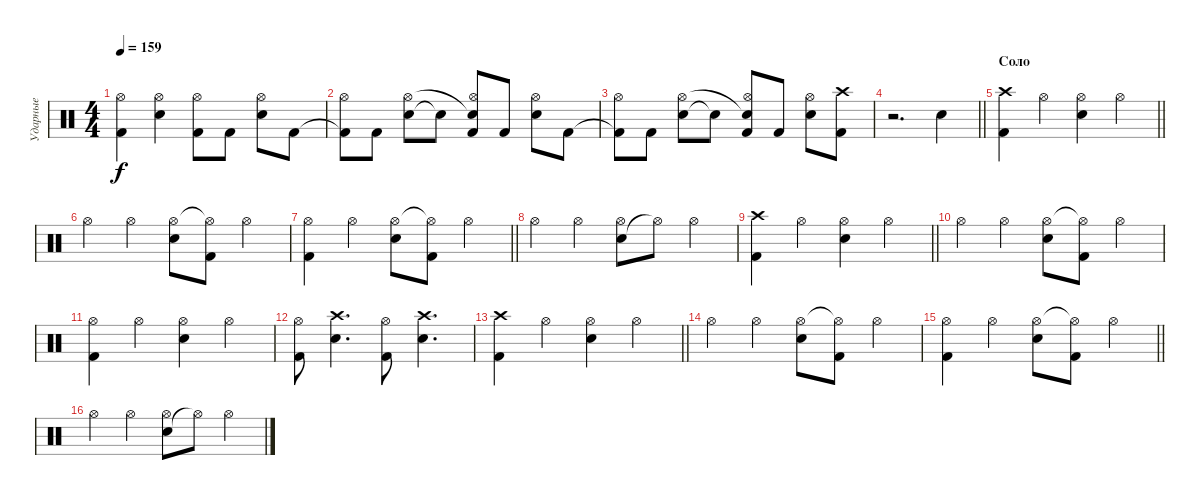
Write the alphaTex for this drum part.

\track ("Ударные" "Ударные") {instrument percussion}
\staff {score}
\articulation defaults
\ts (4 4)
\tempo 159
\clef neutral
\ks c
("Kick (hit) 2" "Hi-Hat (open)").4{dy f} ("Snare (hit) 2" "Hi-Hat (open)").4 ("Kick (hit) 2" "Hi-Hat (open)").8 "Kick (hit) 2".8 ("Snare (hit) 2" "Hi-Hat (open)").8 "Kick (hit) 2".8 |
("Kick (hit) 2"{t} "Hi-Hat (open)").8 "Kick (hit) 2".8 ("Snare (hit) 2" "Hi-Hat (open)").8 "Snare (hit) 2"{t}.8 ("Kick (hit) 2" "Snare (hit) 2"{t} "Hi-Hat (open)").8 "Kick (hit) 2".8 ("Snare (hit) 2" "Hi-Hat (open)").8 "Kick (hit) 2".8 |
("Kick (hit) 2"{t} "Hi-Hat (open)").8 "Kick (hit) 2".8 ("Snare (hit) 2" "Hi-Hat (open)").8 "Snare (hit) 2"{t}.8 ("Kick (hit) 2" "Snare (hit) 2"{t} "Hi-Hat (open)").8 "Kick (hit) 2".8 ("Snare (hit) 2" "Hi-Hat (open)").8 ("Kick (hit) 2" "Crash high (hit)").8 |
\barLineRight lightlight
r.2{d} "Snare (hit) 2".4 |
\section ("" "Соло")
\barLineRight lightlight
("Kick (hit) 2" "Crash high (hit)").4 "Hi-Hat (open)".4 ("Snare (hit) 2" "Hi-Hat (open)").4 "Hi-Hat (open)".4 |
"Hi-Hat (open)".4 "Hi-Hat (open)".4 ("Snare (hit) 2" "Hi-Hat (open)").8 ("Kick (hit) 2" "Hi-Hat (open)"{t}).8 "Hi-Hat (open)".4 |
\barLineRight lightlight
("Kick (hit) 2" "Hi-Hat (open)").4 "Hi-Hat (open)".4 ("Snare (hit) 2" "Hi-Hat (open)").8 ("Kick (hit) 2" "Hi-Hat (open)"{t}).8 "Hi-Hat (open)".4 |
"Hi-Hat (open)".4 "Hi-Hat (open)".4 ("Snare (hit) 2" "Hi-Hat (open)").8 "Hi-Hat (open)"{t}.8 "Hi-Hat (open)".4 |
\barLineRight lightlight
("Kick (hit) 2" "Crash high (hit)").4 "Hi-Hat (open)".4 ("Snare (hit) 2" "Hi-Hat (open)").4 "Hi-Hat (open)".4 |
"Hi-Hat (open)".4 "Hi-Hat (open)".4 ("Snare (hit) 2" "Hi-Hat (open)").8 ("Kick (hit) 2" "Hi-Hat (open)"{t}).8 "Hi-Hat (open)".4 |
("Kick (hit) 2" "Hi-Hat (open)").4 "Hi-Hat (open)".4 ("Snare (hit) 2" "Hi-Hat (open)").4 "Hi-Hat (open)".4 |
("Kick (hit) 2" "Hi-Hat (open)").8 ("Snare (hit) 2" "Crash high (hit)").4{d} ("Kick (hit) 2" "Hi-Hat (open)").8 ("Snare (hit) 2" "Crash high (hit)").4{d} |
\barLineRight lightlight
("Kick (hit) 2" "Crash high (hit)").4 "Hi-Hat (open)".4 ("Snare (hit) 2" "Hi-Hat (open)").4 "Hi-Hat (open)".4 |
"Hi-Hat (open)".4 "Hi-Hat (open)".4 ("Snare (hit) 2" "Hi-Hat (open)").8 ("Kick (hit) 2" "Hi-Hat (open)"{t}).8 "Hi-Hat (open)".4 |
\barLineRight lightlight
("Kick (hit) 2" "Hi-Hat (open)").4 "Hi-Hat (open)".4 ("Snare (hit) 2" "Hi-Hat (open)").8 ("Kick (hit) 2" "Hi-Hat (open)"{t}).8 "Hi-Hat (open)".4 |
"Hi-Hat (open)".4 "Hi-Hat (open)".4 ("Snare (hit) 2" "Hi-Hat (open)").8 "Hi-Hat (open)"{t}.8 "Hi-Hat (open)".4
